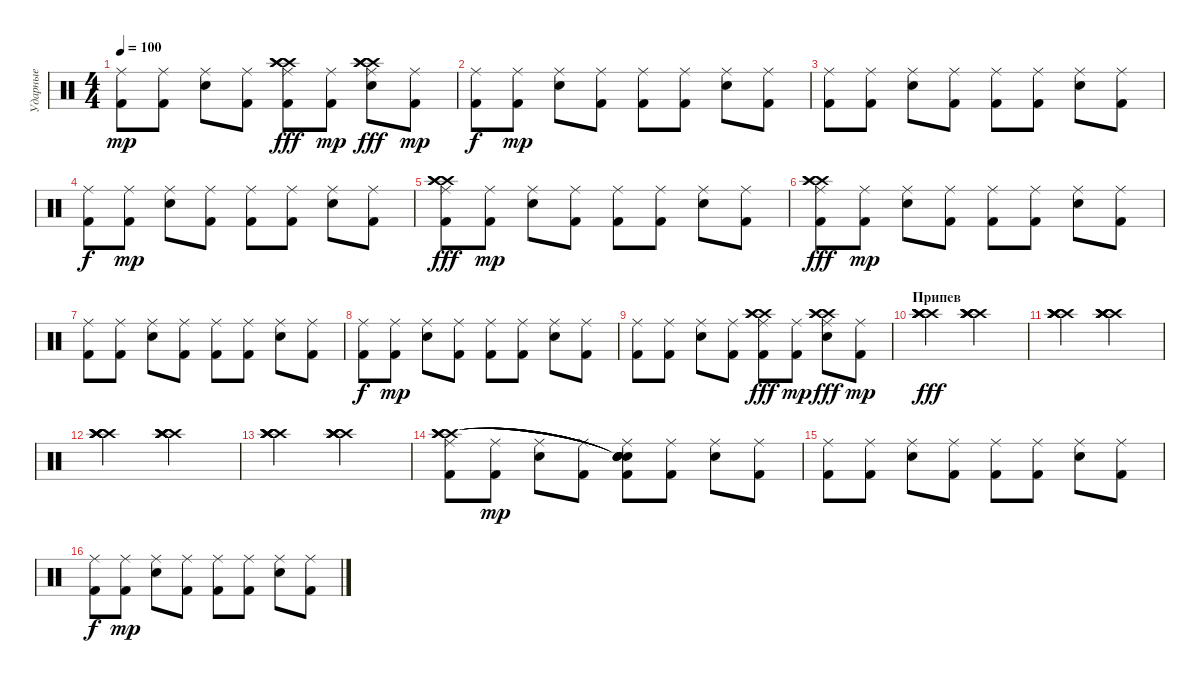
\track ("Ударные" "Ударные") {instrument percussion}
\staff {score}
\articulation defaults
\ts (4 4)
\tempo 100
\clef neutral
\ks c
("Kick (hit) 2" "Ride (middle)").8{dy mp} ("Kick (hit) 2" "Ride (middle)").8 ("Electric Snare (hit)" "Ride (middle)").8 ("Kick (hit) 2" "Ride (middle)").8 ("Kick (hit) 2" "Ride (middle)" "Crash high (hit)" "Crash high (hit)" "Crash high (hit)").8{dy fff} ("Kick (hit) 2" "Ride (middle)").8{dy mp} ("Electric Snare (hit)" "Ride (middle)" "Crash high (hit)" "Crash high (hit)" "Crash high (hit)").8{dy fff} ("Kick (hit) 2" "Ride (middle)").8{dy mp} |
("Kick (hit) 2" "Ride (middle)").8{dy f} ("Kick (hit) 2" "Ride (middle)").8{dy mp} ("Electric Snare (hit)" "Ride (middle)").8 ("Kick (hit) 2" "Ride (middle)").8 ("Kick (hit) 2" "Ride (middle)").8 ("Kick (hit) 2" "Ride (middle)").8 ("Electric Snare (hit)" "Ride (middle)").8 ("Kick (hit) 2" "Ride (middle)").8 |
("Kick (hit) 2" "Ride (middle)").8 ("Kick (hit) 2" "Ride (middle)").8 ("Electric Snare (hit)" "Ride (middle)").8 ("Kick (hit) 2" "Ride (middle)").8 ("Kick (hit) 2" "Ride (middle)").8 ("Kick (hit) 2" "Ride (middle)").8 ("Electric Snare (hit)" "Ride (middle)").8 ("Kick (hit) 2" "Ride (middle)").8 |
("Kick (hit) 2" "Ride (middle)").8{dy f} ("Kick (hit) 2" "Ride (middle)").8{dy mp} ("Electric Snare (hit)" "Ride (middle)").8 ("Kick (hit) 2" "Ride (middle)").8 ("Kick (hit) 2" "Ride (middle)").8 ("Kick (hit) 2" "Ride (middle)").8 ("Electric Snare (hit)" "Ride (middle)").8 ("Kick (hit) 2" "Ride (middle)").8 |
("Kick (hit) 2" "Ride (middle)" "Crash high (hit)" "Crash high (hit)" "Crash high (hit)").8{dy fff} ("Kick (hit) 2" "Ride (middle)").8{dy mp} ("Electric Snare (hit)" "Ride (middle)").8 ("Kick (hit) 2" "Ride (middle)").8 ("Kick (hit) 2" "Ride (middle)").8 ("Kick (hit) 2" "Ride (middle)").8 ("Electric Snare (hit)" "Ride (middle)").8 ("Kick (hit) 2" "Ride (middle)").8 |
("Kick (hit) 2" "Ride (middle)" "Crash high (hit)" "Crash high (hit)" "Crash high (hit)").8{dy fff} ("Kick (hit) 2" "Ride (middle)").8{dy mp} ("Electric Snare (hit)" "Ride (middle)").8 ("Kick (hit) 2" "Ride (middle)").8 ("Kick (hit) 2" "Ride (middle)").8 ("Kick (hit) 2" "Ride (middle)").8 ("Electric Snare (hit)" "Ride (middle)").8 ("Kick (hit) 2" "Ride (middle)").8 |
("Kick (hit) 2" "Ride (middle)").8 ("Kick (hit) 2" "Ride (middle)").8 ("Electric Snare (hit)" "Ride (middle)").8 ("Kick (hit) 2" "Ride (middle)").8 ("Kick (hit) 2" "Ride (middle)").8 ("Kick (hit) 2" "Ride (middle)").8 ("Electric Snare (hit)" "Ride (middle)").8 ("Kick (hit) 2" "Ride (middle)").8 |
("Kick (hit) 2" "Ride (middle)").8{dy f} ("Kick (hit) 2" "Ride (middle)").8{dy mp} ("Electric Snare (hit)" "Ride (middle)").8 ("Kick (hit) 2" "Ride (middle)").8 ("Kick (hit) 2" "Ride (middle)").8 ("Kick (hit) 2" "Ride (middle)").8 ("Electric Snare (hit)" "Ride (middle)").8 ("Kick (hit) 2" "Ride (middle)").8 |
("Kick (hit) 2" "Ride (middle)").8 ("Kick (hit) 2" "Ride (middle)").8 ("Electric Snare (hit)" "Ride (middle)").8 ("Kick (hit) 2" "Ride (middle)").8 ("Kick (hit) 2" "Ride (middle)" "Crash high (hit)" "Crash high (hit)" "Crash high (hit)").8{dy fff} ("Kick (hit) 2" "Ride (middle)").8{dy mp} ("Electric Snare (hit)" "Ride (middle)" "Crash high (hit)" "Crash high (hit)" "Crash high (hit)").8{dy fff} ("Kick (hit) 2" "Ride (middle)").8{dy mp} |
\section ("" "Припев")
("Crash high (hit)" "Crash high (hit)" "Crash high (hit)" "Crash high (hit)" "Crash high (hit)" "Crash high (hit)").2{dy fff} ("Crash high (hit)" "Crash high (hit)" "Crash high (hit)" "Crash high (hit)" "Crash high (hit)" "Crash high (hit)").2 |
("Crash high (hit)" "Crash high (hit)" "Crash high (hit)" "Crash high (hit)" "Crash high (hit)" "Crash high (hit)").2 ("Crash high (hit)" "Crash high (hit)" "Crash high (hit)" "Crash high (hit)" "Crash high (hit)" "Crash high (hit)").2 |
("Crash high (hit)" "Crash high (hit)" "Crash high (hit)" "Crash high (hit)" "Crash high (hit)" "Crash high (hit)").2 ("Crash high (hit)" "Crash high (hit)" "Crash high (hit)" "Crash high (hit)" "Crash high (hit)" "Crash high (hit)").2 |
("Crash high (hit)" "Crash high (hit)" "Crash high (hit)" "Crash high (hit)" "Crash high (hit)" "Crash high (hit)").2 ("Crash high (hit)" "Crash high (hit)" "Crash high (hit)" "Crash high (hit)" "Crash high (hit)" "Crash high (hit)").2 |
("Kick (hit) 2" "Ride (middle)" "Crash high (hit)" "Crash high (hit)" "Crash high (hit)" "Crash high (hit)").8 ("Kick (hit) 2" "Ride (middle)").8{dy mp} ("Electric Snare (hit)" "Ride (middle)").8 ("Kick (hit) 2" "Ride (middle)").8 ("Kick (hit) 2" "Ride (middle)" "Snare (hit)"{t} "Snare (hit)"{t} "Snare (hit)"{t} "Snare (hit)"{t}).8 ("Kick (hit) 2" "Ride (middle)").8 ("Electric Snare (hit)" "Ride (middle)").8 ("Kick (hit) 2" "Ride (middle)").8 |
("Kick (hit) 2" "Ride (middle)").8 ("Kick (hit) 2" "Ride (middle)").8 ("Electric Snare (hit)" "Ride (middle)").8 ("Kick (hit) 2" "Ride (middle)").8 ("Kick (hit) 2" "Ride (middle)").8 ("Kick (hit) 2" "Ride (middle)").8 ("Electric Snare (hit)" "Ride (middle)").8 ("Kick (hit) 2" "Ride (middle)").8 |
("Kick (hit) 2" "Ride (middle)").8{dy f} ("Kick (hit) 2" "Ride (middle)").8{dy mp} ("Electric Snare (hit)" "Ride (middle)").8 ("Kick (hit) 2" "Ride (middle)").8 ("Kick (hit) 2" "Ride (middle)").8 ("Kick (hit) 2" "Ride (middle)").8 ("Electric Snare (hit)" "Ride (middle)").8 ("Kick (hit) 2" "Ride (middle)").8
